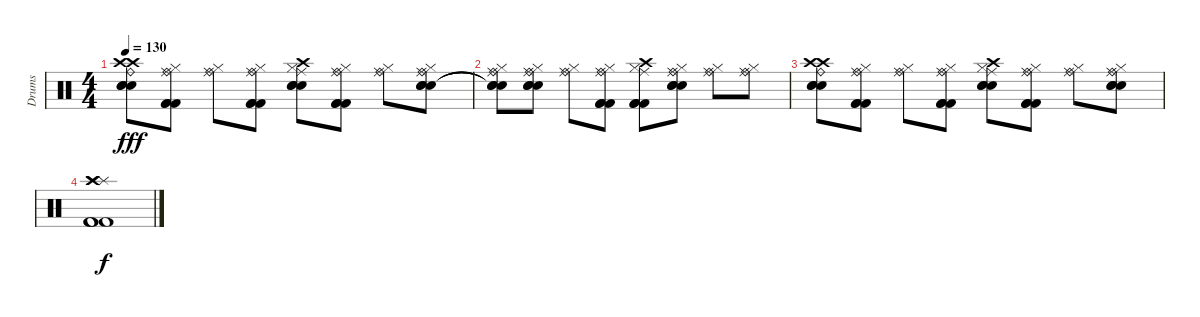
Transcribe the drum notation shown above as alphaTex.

\track ("Drums" "Drums") {instrument percussion}
\staff {score}
\articulation defaults
\ts (4 4)
\tempo 130
\clef neutral
\ks c
("Ride (bell)" "Crash high (hit)" "Crash high (hit)" "Snare (hit) 2" "Snare (hit) 2" "Snare (hit) 2").8{dy fff} ("Ride (bell)" "Ride (middle)" "Hi-Hat (closed)" "Kick (hit) 2" "Kick (hit) 2" "Kick (hit) 2").8 ("Ride (bell)" "Ride (middle)" "Hi-Hat (closed)").8 ("Ride (bell)" "Ride (middle)" "Hi-Hat (closed)" "Kick (hit) 2" "Kick (hit) 2" "Kick (hit) 2").8 ("Crash high (hit)" "Ride (middle)" "Hi-Hat (closed)" "Snare (hit) 2" "Snare (hit) 2" "Snare (hit) 2").8 ("Ride (bell)" "Ride (middle)" "Hi-Hat (closed)" "Kick (hit) 2" "Kick (hit) 2" "Kick (hit) 2").8 ("Ride (bell)" "Ride (middle)" "Hi-Hat (closed)").8 ("Ride (bell)" "Ride (middle)" "Hi-Hat (closed)" "Snare (hit) 2" "Snare (hit) 2" "Snare (hit) 2").8 |
("Ride (bell)" "Ride (middle)" "Hi-Hat (closed)" "Snare (hit) 2"{t} "Snare (hit) 2"{t} "Snare (hit) 2"{t}).8 ("Ride (bell)" "Ride (middle)" "Hi-Hat (closed)" "Snare (hit) 2" "Snare (hit) 2" "Snare (hit) 2").8 ("Ride (bell)" "Ride (middle)" "Hi-Hat (closed)").8 ("Ride (bell)" "Ride (middle)" "Hi-Hat (closed)" "Kick (hit) 2" "Kick (hit) 2" "Kick (hit) 2").8 ("Crash high (hit)" "Ride (middle)" "Hi-Hat (closed)" "Kick (hit) 2" "Kick (hit) 2" "Kick (hit) 2").8 ("Ride (bell)" "Ride (middle)" "Hi-Hat (closed)" "Snare (hit) 2" "Snare (hit) 2" "Snare (hit) 2").8 ("Ride (bell)" "Ride (middle)" "Hi-Hat (closed)").8 ("Ride (bell)" "Ride (middle)" "Hi-Hat (closed)").8 |
("Ride (bell)" "Crash high (hit)" "Crash high (hit)" "Snare (hit) 2" "Snare (hit) 2" "Snare (hit) 2").8 ("Ride (bell)" "Ride (middle)" "Hi-Hat (closed)" "Kick (hit) 2" "Kick (hit) 2" "Kick (hit) 2").8 ("Ride (bell)" "Ride (middle)" "Hi-Hat (closed)").8 ("Ride (bell)" "Ride (middle)" "Hi-Hat (closed)" "Kick (hit) 2" "Kick (hit) 2" "Kick (hit) 2").8 ("Crash high (hit)" "Ride (middle)" "Hi-Hat (closed)" "Snare (hit) 2" "Snare (hit) 2" "Snare (hit) 2").8 ("Ride (bell)" "Ride (middle)" "Hi-Hat (closed)" "Kick (hit) 2" "Kick (hit) 2" "Kick (hit) 2").8 ("Ride (bell)" "Ride (middle)" "Hi-Hat (closed)").8 ("Ride (bell)" "Ride (middle)" "Hi-Hat (closed)" "Snare (hit) 2" "Snare (hit) 2" "Snare (hit) 2").8 |
("Splash (hit)" "Crash high (hit)" "Crash high (hit)" "Kick (hit) 2" "Kick (hit) 2" "Kick (hit) 2").1{dy f}
